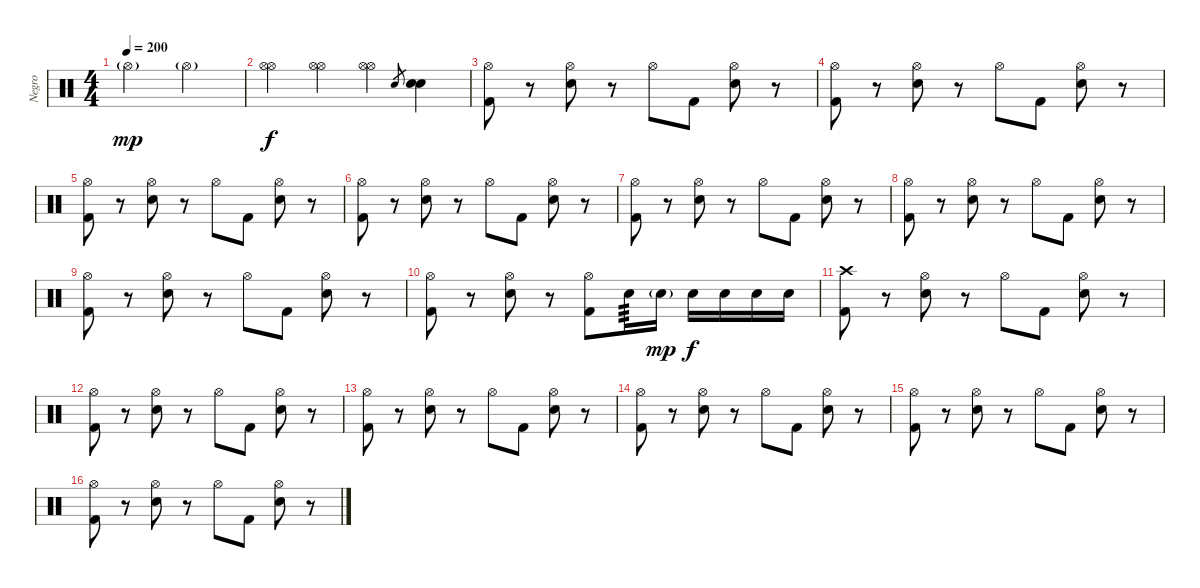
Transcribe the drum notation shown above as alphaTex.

\track ("Negro" "Negro") {instrument percussion}
\staff {score}
\articulation defaults
\ts (4 4)
\tempo 200
\clef neutral
\ks c "Hi-Hat (open)"{g}.2{dy mp} "Hi-Hat (open)"{g}.2
|
("Hi-Hat (open)" "Hi-Hat (open)").4{dy f} ("Hi-Hat (open)" "Hi-Hat (open)").4 ("Hi-Hat (open)" "Hi-Hat (open)").4 "Electric Snare (hit)".8{gr} ("Electric Snare (hit)" "Electric Snare (hit)").4 |
("Hi-Hat (open)" "Kick (hit) 2").8 r.8 ("Hi-Hat (open)" "Electric Snare (hit)").8 r.8 "Hi-Hat (open)".8 "Kick (hit) 2".8 ("Hi-Hat (open)" "Electric Snare (hit)").8 r.8 |
("Hi-Hat (open)" "Kick (hit) 2").8 r.8 ("Hi-Hat (open)" "Electric Snare (hit)").8 r.8 "Hi-Hat (open)".8 "Kick (hit) 2".8 ("Hi-Hat (open)" "Electric Snare (hit)").8 r.8 |
("Hi-Hat (open)" "Kick (hit) 2").8 r.8 ("Hi-Hat (open)" "Electric Snare (hit)").8 r.8 "Hi-Hat (open)".8 "Kick (hit) 2".8 ("Hi-Hat (open)" "Electric Snare (hit)").8 r.8 |
("Hi-Hat (open)" "Kick (hit) 2").8 r.8 ("Hi-Hat (open)" "Electric Snare (hit)").8 r.8 "Hi-Hat (open)".8 "Kick (hit) 2".8 ("Hi-Hat (open)" "Electric Snare (hit)").8 r.8 |
("Hi-Hat (open)" "Kick (hit) 2").8 r.8 ("Hi-Hat (open)" "Electric Snare (hit)").8 r.8 "Hi-Hat (open)".8 "Kick (hit) 2".8 ("Hi-Hat (open)" "Electric Snare (hit)").8 r.8 |
("Hi-Hat (open)" "Kick (hit) 2").8 r.8 ("Hi-Hat (open)" "Electric Snare (hit)").8 r.8 "Hi-Hat (open)".8 "Kick (hit) 2".8 ("Hi-Hat (open)" "Electric Snare (hit)").8 r.8 |
("Hi-Hat (open)" "Kick (hit) 2").8 r.8 ("Hi-Hat (open)" "Electric Snare (hit)").8 r.8 "Hi-Hat (open)".8 "Kick (hit) 2".8 ("Hi-Hat (open)" "Electric Snare (hit)").8 r.8 |
("Hi-Hat (open)" "Kick (hit) 2").8 r.8 ("Hi-Hat (open)" "Electric Snare (hit)").8 r.8 ("Hi-Hat (open)" "Kick (hit) 2").8 "Electric Snare (hit)".16{tp 3} "Electric Snare (hit)"{g}.16{dy mp} "Electric Snare (hit)".16{dy f} "Electric Snare (hit)".16 "Electric Snare (hit)".16 "Electric Snare (hit)".16 |
("Crash high (hit)" "Kick (hit) 2").8 r.8 ("Hi-Hat (open)" "Electric Snare (hit)").8 r.8 "Hi-Hat (open)".8 "Kick (hit) 2".8 ("Hi-Hat (open)" "Electric Snare (hit)").8 r.8 |
("Hi-Hat (open)" "Kick (hit) 2").8 r.8 ("Hi-Hat (open)" "Electric Snare (hit)").8 r.8 "Hi-Hat (open)".8 "Kick (hit) 2".8 ("Hi-Hat (open)" "Electric Snare (hit)").8 r.8 |
("Hi-Hat (open)" "Kick (hit) 2").8 r.8 ("Hi-Hat (open)" "Electric Snare (hit)").8 r.8 "Hi-Hat (open)".8 "Kick (hit) 2".8 ("Hi-Hat (open)" "Electric Snare (hit)").8 r.8 |
("Hi-Hat (open)" "Kick (hit) 2").8 r.8 ("Hi-Hat (open)" "Electric Snare (hit)").8 r.8 "Hi-Hat (open)".8 "Kick (hit) 2".8 ("Hi-Hat (open)" "Electric Snare (hit)").8 r.8 |
("Hi-Hat (open)" "Kick (hit) 2").8 r.8 ("Hi-Hat (open)" "Electric Snare (hit)").8 r.8 "Hi-Hat (open)".8 "Kick (hit) 2".8 ("Hi-Hat (open)" "Electric Snare (hit)").8 r.8 |
("Hi-Hat (open)" "Kick (hit) 2").8 r.8 ("Hi-Hat (open)" "Electric Snare (hit)").8 r.8 "Hi-Hat (open)".8 "Kick (hit) 2".8 ("Hi-Hat (open)" "Electric Snare (hit)").8 r.8
